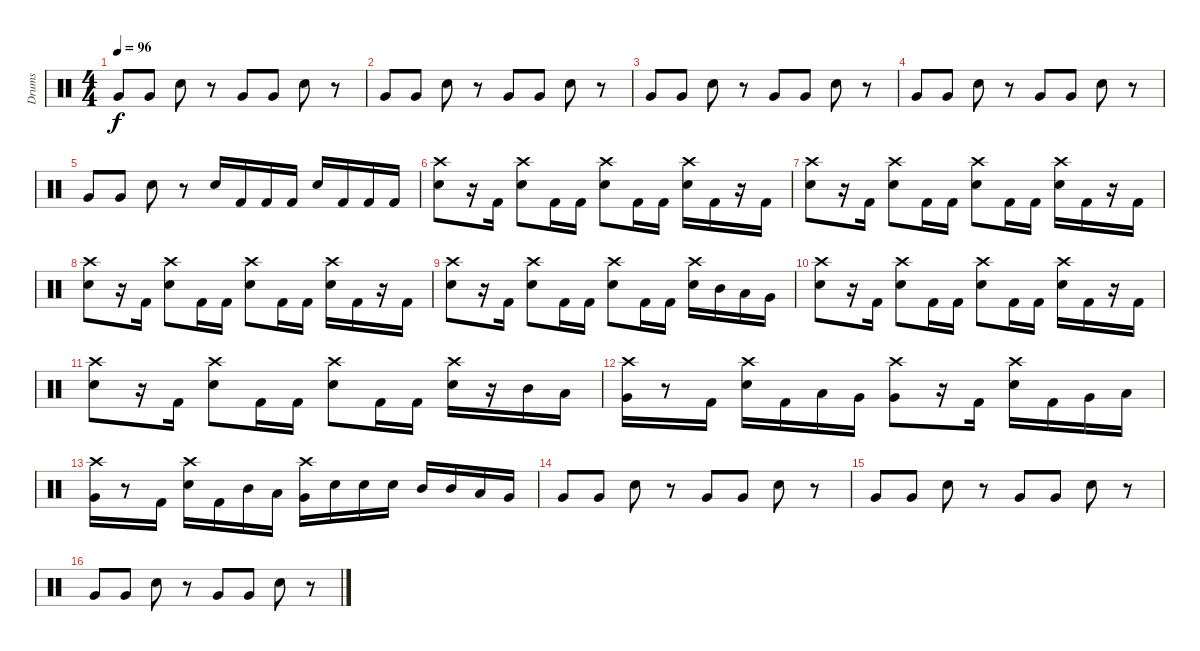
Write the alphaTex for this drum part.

\track ("Drums" "Drums") {instrument percussion}
\staff {score}
\articulation defaults
\ts (4 4)
\tempo 96
\clef neutral
\ks c "Very Low Tom (hit)".8{dy f} "Very Low Tom (hit)".8 "Electric Snare (hit)".8
r.8 "Very Low Tom (hit)".8 "Very Low Tom (hit)".8 "Electric Snare (hit)".8 r.8 |
"Very Low Tom (hit)".8 "Very Low Tom (hit)".8 "Electric Snare (hit)".8 r.8 "Very Low Tom (hit)".8 "Very Low Tom (hit)".8 "Electric Snare (hit)".8 r.8 |
"Very Low Tom (hit)".8 "Very Low Tom (hit)".8 "Electric Snare (hit)".8 r.8 "Very Low Tom (hit)".8 "Very Low Tom (hit)".8 "Electric Snare (hit)".8 r.8 |
"Very Low Tom (hit)".8 "Very Low Tom (hit)".8 "Electric Snare (hit)".8 r.8 "Very Low Tom (hit)".8 "Very Low Tom (hit)".8 "Electric Snare (hit)".8 r.8 |
"Very Low Tom (hit)".8 "Very Low Tom (hit)".8 "Electric Snare (hit)".8 r.8 "Electric Snare (hit)".16 "Kick (hit) 2".16 "Kick (hit) 2".16 "Kick (hit) 2".16 "Electric Snare (hit)".16 "Kick (hit) 2".16 "Kick (hit) 2".16 "Kick (hit) 2".16 |
("Crash high (hit)" "Electric Snare (hit)").8 r.16 "Kick (hit) 2".16 ("Crash high (hit)" "Electric Snare (hit)").8 "Kick (hit) 2".16 "Kick (hit) 2".16 ("Crash high (hit)" "Electric Snare (hit)").8 "Kick (hit) 2".16 "Kick (hit) 2".16 ("Crash high (hit)" "Electric Snare (hit)").16 "Kick (hit) 2".16 r.16 "Kick (hit) 2".16 |
("Crash high (hit)" "Electric Snare (hit)").8 r.16 "Kick (hit) 2".16 ("Crash high (hit)" "Electric Snare (hit)").8 "Kick (hit) 2".16 "Kick (hit) 2".16 ("Crash high (hit)" "Electric Snare (hit)").8 "Kick (hit) 2".16 "Kick (hit) 2".16 ("Crash high (hit)" "Electric Snare (hit)").16 "Kick (hit) 2".16 r.16 "Kick (hit) 2".16 |
("Crash high (hit)" "Electric Snare (hit)").8 r.16 "Kick (hit) 2".16 ("Crash high (hit)" "Electric Snare (hit)").8 "Kick (hit) 2".16 "Kick (hit) 2".16 ("Crash high (hit)" "Electric Snare (hit)").8 "Kick (hit) 2".16 "Kick (hit) 2".16 ("Crash high (hit)" "Electric Snare (hit)").16 "Kick (hit) 2".16 r.16 "Kick (hit) 2".16 |
("Crash high (hit)" "Electric Snare (hit)").8 r.16 "Kick (hit) 2".16 ("Crash high (hit)" "Electric Snare (hit)").8 "Kick (hit) 2".16 "Kick (hit) 2".16 ("Crash high (hit)" "Electric Snare (hit)").8 "Kick (hit) 2".16 "Kick (hit) 2".16 ("Crash high (hit)" "Electric Snare (hit)").16 "Mid Tom (hit)".16 "Low Tom (hit)".16 "Very Low Tom (hit)".16 |
("Crash high (hit)" "Electric Snare (hit)").8 r.16 "Kick (hit) 2".16 ("Crash high (hit)" "Electric Snare (hit)").8 "Kick (hit) 2".16 "Kick (hit) 2".16 ("Crash high (hit)" "Electric Snare (hit)").8 "Kick (hit) 2".16 "Kick (hit) 2".16 ("Crash high (hit)" "Electric Snare (hit)").16 "Kick (hit) 2".16 r.16 "Kick (hit) 2".16 |
("Crash high (hit)" "Electric Snare (hit)").8 r.16 "Kick (hit) 2".16 ("Crash high (hit)" "Electric Snare (hit)").8 "Kick (hit) 2".16 "Kick (hit) 2".16 ("Crash high (hit)" "Electric Snare (hit)").8 "Kick (hit) 2".16 "Kick (hit) 2".16 ("Crash high (hit)" "Electric Snare (hit)").16 r.16 "Mid Tom (hit)".16 "Low Tom (hit)".16 |
("Crash high (hit)" "Very Low Tom (hit)").16 r.8 "Kick (hit) 2".16 ("Crash high (hit)" "Electric Snare (hit)").16 "Kick (hit) 2".16 "Low Tom (hit)".16 "Very Low Tom (hit)".16 ("Crash high (hit)" "Very Low Tom (hit)").8 r.16 "Kick (hit) 2".16 ("Crash high (hit)" "Electric Snare (hit)").16 "Kick (hit) 2".16 "Very Low Tom (hit)".16 "Low Floor Tom (hit)".16 |
("Crash high (hit)" "Very Low Tom (hit)").16 r.8 "Kick (hit) 2".16 ("Crash high (hit)" "Electric Snare (hit)").16 "Kick (hit) 2".16 "Mid Tom (hit)".16 "Low Tom (hit)".16 ("Crash high (hit)" "Very Low Tom (hit)").16 "Electric Snare (hit)".16 "Electric Snare (hit)".16 "Electric Snare (hit)".16 "Mid Tom (hit)".16 "Mid Tom (hit)".16 "Low Tom (hit)".16 "Very Low Tom (hit)".16 |
"Very Low Tom (hit)".8 "Very Low Tom (hit)".8 "Electric Snare (hit)".8 r.8 "Very Low Tom (hit)".8 "Very Low Tom (hit)".8 "Electric Snare (hit)".8 r.8 |
"Very Low Tom (hit)".8 "Very Low Tom (hit)".8 "Electric Snare (hit)".8 r.8 "Very Low Tom (hit)".8 "Very Low Tom (hit)".8 "Electric Snare (hit)".8 r.8 |
"Very Low Tom (hit)".8 "Very Low Tom (hit)".8 "Electric Snare (hit)".8 r.8 "Very Low Tom (hit)".8 "Very Low Tom (hit)".8 "Electric Snare (hit)".8 r.8
